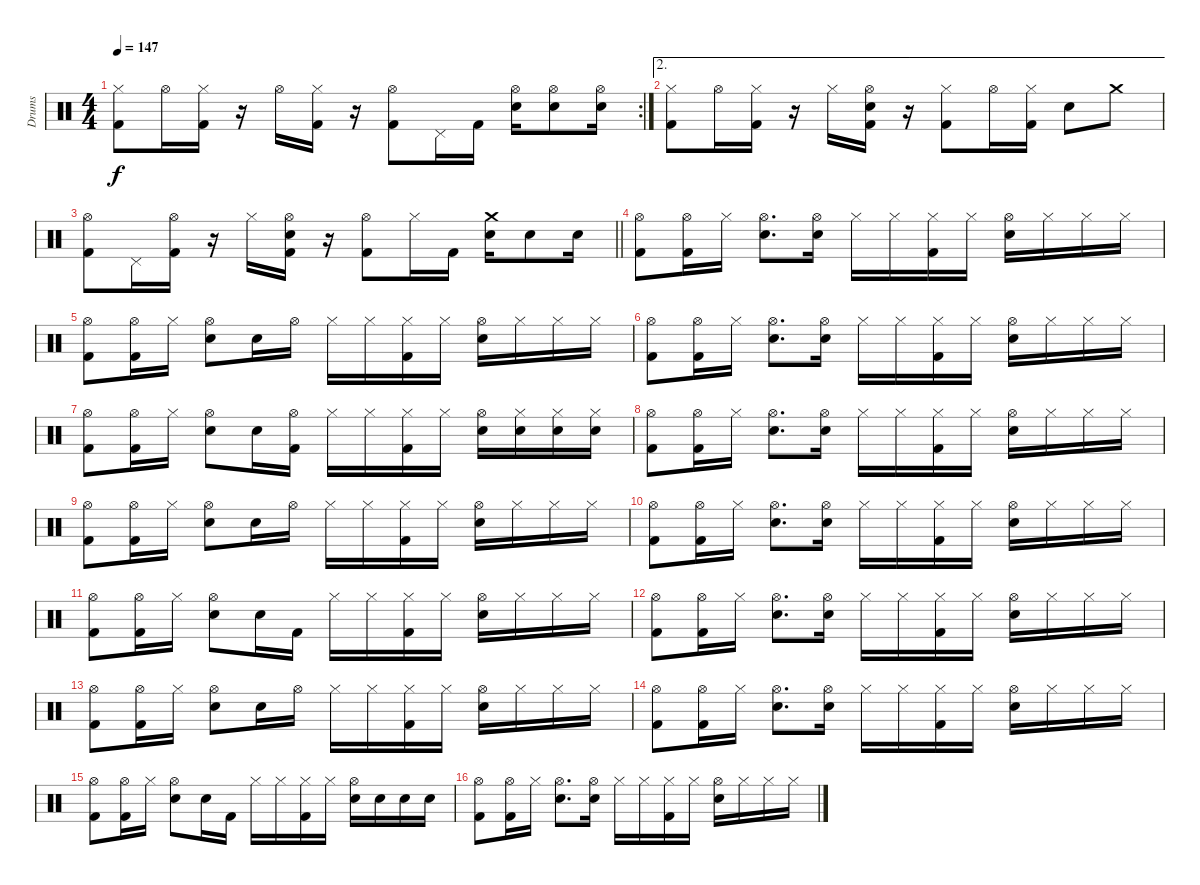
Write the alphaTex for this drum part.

\track ("Drums" "Drums") {instrument percussion}
\staff {score}
\articulation defaults
\rc 2
\ts (4 4)
\tempo 147
\clef neutral
\ks c
("Hi-Hat (closed)" "Kick (hit) 2").8{dy f} "Hi-Hat (open)".16 ("Hi-Hat (closed)" "Kick (hit) 2").16 r.16 "Hi-Hat (open)".16 ("Hi-Hat (closed)" "Kick (hit) 2").16 r.16 ("Hi-Hat (open)" "Kick (hit) 2").8 "Pedal Hi-Hat (hit)".16 "Kick (hit) 2".16 ("Hi-Hat (open)" "Electric Snare (hit)").16 ("Hi-Hat (open)" "Electric Snare (hit)").8 ("Hi-Hat (open)" "Electric Snare (hit)").16 |
\ae 2
("Hi-Hat (closed)" "Kick (hit) 2").8 "Hi-Hat (open)".16 ("Hi-Hat (closed)" "Kick (hit) 2").16 r.16 "Hi-Hat (closed)".16 ("Hi-Hat (open)" "Electric Snare (hit)" "Kick (hit) 2").16 r.16 ("Hi-Hat (closed)" "Kick (hit) 2").8 "Hi-Hat (open)".16 ("Hi-Hat (closed)" "Kick (hit) 2").16 "Electric Snare (hit)".8 "Crash medium (hit)".8 |
\barLineRight lightlight
("Hi-Hat (open)" "Kick (hit) 2").8 "Pedal Hi-Hat (hit)".16 ("Hi-Hat (open)" "Kick (hit) 2").16 r.16 "Hi-Hat (closed)".16 ("Hi-Hat (open)" "Electric Snare (hit)" "Kick (hit) 2").16 r.16 ("Hi-Hat (open)" "Kick (hit) 2").8 "Hi-Hat (closed)".16 "Kick (hit) 2".16 ("Crash medium (hit)" "Electric Snare (hit)").16 "Electric Snare (hit)".8 "Electric Snare (hit)".16 |
("Hi-Hat (open)" "Kick (hit) 2").8 ("Hi-Hat (open)" "Kick (hit) 2").16 "Hi-Hat (closed)".16 ("Hi-Hat (open)" "Electric Snare (hit)").8{d} ("Hi-Hat (open)" "Electric Snare (hit)").16 "Hi-Hat (closed)".16 "Hi-Hat (closed)".16 ("Hi-Hat (closed)" "Kick (hit) 2").16 "Hi-Hat (closed)".16 ("Hi-Hat (open)" "Electric Snare (hit)").16 "Hi-Hat (closed)".16 "Hi-Hat (closed)".16 "Hi-Hat (closed)".16 |
("Hi-Hat (open)" "Kick (hit) 2").8 ("Hi-Hat (open)" "Kick (hit) 2").16 "Hi-Hat (closed)".16 ("Hi-Hat (open)" "Electric Snare (hit)").8 "Electric Snare (hit)".16 "Hi-Hat (open)".16 "Hi-Hat (closed)".16 "Hi-Hat (closed)".16 ("Hi-Hat (closed)" "Kick (hit) 2").16 "Hi-Hat (closed)".16 ("Hi-Hat (open)" "Electric Snare (hit)").16 "Hi-Hat (closed)".16 "Hi-Hat (closed)".16 "Hi-Hat (closed)".16 |
("Hi-Hat (open)" "Kick (hit) 2").8 ("Hi-Hat (open)" "Kick (hit) 2").16 "Hi-Hat (closed)".16 ("Hi-Hat (open)" "Electric Snare (hit)").8{d} ("Hi-Hat (open)" "Electric Snare (hit)").16 "Hi-Hat (closed)".16 "Hi-Hat (closed)".16 ("Hi-Hat (closed)" "Kick (hit) 2").16 "Hi-Hat (closed)".16 ("Hi-Hat (open)" "Electric Snare (hit)").16 "Hi-Hat (closed)".16 "Hi-Hat (closed)".16 "Hi-Hat (closed)".16 |
("Hi-Hat (open)" "Kick (hit) 2").8 ("Hi-Hat (open)" "Kick (hit) 2").16 "Hi-Hat (closed)".16 ("Hi-Hat (open)" "Electric Snare (hit)").8 "Electric Snare (hit)".16 ("Hi-Hat (open)" "Kick (hit) 2").16 "Hi-Hat (closed)".16 "Hi-Hat (closed)".16 ("Hi-Hat (closed)" "Kick (hit) 2").16 "Hi-Hat (closed)".16 ("Hi-Hat (open)" "Electric Snare (hit)").16 ("Hi-Hat (closed)" "Electric Snare (hit)").16 ("Hi-Hat (closed)" "Electric Snare (hit)").16 ("Hi-Hat (closed)" "Electric Snare (hit)").16 |
("Hi-Hat (open)" "Kick (hit) 2").8 ("Hi-Hat (open)" "Kick (hit) 2").16 "Hi-Hat (closed)".16 ("Hi-Hat (open)" "Electric Snare (hit)").8{d} ("Hi-Hat (open)" "Electric Snare (hit)").16 "Hi-Hat (closed)".16 "Hi-Hat (closed)".16 ("Hi-Hat (closed)" "Kick (hit) 2").16 "Hi-Hat (closed)".16 ("Hi-Hat (open)" "Electric Snare (hit)").16 "Hi-Hat (closed)".16 "Hi-Hat (closed)".16 "Hi-Hat (closed)".16 |
("Hi-Hat (open)" "Kick (hit) 2").8 ("Hi-Hat (open)" "Kick (hit) 2").16 "Hi-Hat (closed)".16 ("Hi-Hat (open)" "Electric Snare (hit)").8 "Electric Snare (hit)".16 "Hi-Hat (open)".16 "Hi-Hat (closed)".16 "Hi-Hat (closed)".16 ("Hi-Hat (closed)" "Kick (hit) 2").16 "Hi-Hat (closed)".16 ("Hi-Hat (open)" "Electric Snare (hit)").16 "Hi-Hat (closed)".16 "Hi-Hat (closed)".16 "Hi-Hat (closed)".16 |
("Hi-Hat (open)" "Kick (hit) 2").8 ("Hi-Hat (open)" "Kick (hit) 2").16 "Hi-Hat (closed)".16 ("Hi-Hat (open)" "Electric Snare (hit)").8{d} ("Hi-Hat (open)" "Electric Snare (hit)").16 "Hi-Hat (closed)".16 "Hi-Hat (closed)".16 ("Hi-Hat (closed)" "Kick (hit) 2").16 "Hi-Hat (closed)".16 ("Hi-Hat (open)" "Electric Snare (hit)").16 "Hi-Hat (closed)".16 "Hi-Hat (closed)".16 "Hi-Hat (closed)".16 |
("Hi-Hat (open)" "Kick (hit) 2").8 ("Hi-Hat (open)" "Kick (hit) 2").16 "Hi-Hat (closed)".16 ("Hi-Hat (open)" "Electric Snare (hit)").8 "Electric Snare (hit)".16 "Kick (hit) 2".16 "Hi-Hat (closed)".16 "Hi-Hat (closed)".16 ("Hi-Hat (closed)" "Kick (hit) 2").16 "Hi-Hat (closed)".16 ("Hi-Hat (open)" "Electric Snare (hit)").16 "Hi-Hat (closed)".16 "Hi-Hat (closed)".16 "Hi-Hat (closed)".16 |
("Hi-Hat (open)" "Kick (hit) 2").8 ("Hi-Hat (open)" "Kick (hit) 2").16 "Hi-Hat (closed)".16 ("Hi-Hat (open)" "Electric Snare (hit)").8{d} ("Hi-Hat (open)" "Electric Snare (hit)").16 "Hi-Hat (closed)".16 "Hi-Hat (closed)".16 ("Hi-Hat (closed)" "Kick (hit) 2").16 "Hi-Hat (closed)".16 ("Hi-Hat (open)" "Electric Snare (hit)").16 "Hi-Hat (closed)".16 "Hi-Hat (closed)".16 "Hi-Hat (closed)".16 |
("Hi-Hat (open)" "Kick (hit) 2").8 ("Hi-Hat (open)" "Kick (hit) 2").16 "Hi-Hat (closed)".16 ("Hi-Hat (open)" "Electric Snare (hit)").8 "Electric Snare (hit)".16 "Hi-Hat (open)".16 "Hi-Hat (closed)".16 "Hi-Hat (closed)".16 ("Hi-Hat (closed)" "Kick (hit) 2").16 "Hi-Hat (closed)".16 ("Hi-Hat (open)" "Electric Snare (hit)").16 "Hi-Hat (closed)".16 "Hi-Hat (closed)".16 "Hi-Hat (closed)".16 |
("Hi-Hat (open)" "Kick (hit) 2").8 ("Hi-Hat (open)" "Kick (hit) 2").16 "Hi-Hat (closed)".16 ("Hi-Hat (open)" "Electric Snare (hit)").8{d} ("Hi-Hat (open)" "Electric Snare (hit)").16 "Hi-Hat (closed)".16 "Hi-Hat (closed)".16 ("Hi-Hat (closed)" "Kick (hit) 2").16 "Hi-Hat (closed)".16 ("Hi-Hat (open)" "Electric Snare (hit)").16 "Hi-Hat (closed)".16 "Hi-Hat (closed)".16 "Hi-Hat (closed)".16 |
("Hi-Hat (open)" "Kick (hit) 2").8 ("Hi-Hat (open)" "Kick (hit) 2").16 "Hi-Hat (closed)".16 ("Hi-Hat (open)" "Electric Snare (hit)").8 "Electric Snare (hit)".16 "Kick (hit) 2".16 "Hi-Hat (closed)".16 "Hi-Hat (closed)".16 ("Hi-Hat (closed)" "Kick (hit) 2").16 "Hi-Hat (closed)".16 ("Hi-Hat (open)" "Electric Snare (hit)").16 "Electric Snare (hit)".16 "Electric Snare (hit)".16 "Electric Snare (hit)".16 |
("Hi-Hat (open)" "Kick (hit) 2").8 ("Hi-Hat (open)" "Kick (hit) 2").16 "Hi-Hat (closed)".16 ("Hi-Hat (open)" "Electric Snare (hit)").8{d} ("Hi-Hat (open)" "Electric Snare (hit)").16 "Hi-Hat (closed)".16 "Hi-Hat (closed)".16 ("Hi-Hat (closed)" "Kick (hit) 2").16 "Hi-Hat (closed)".16 ("Hi-Hat (open)" "Electric Snare (hit)").16 "Hi-Hat (closed)".16 "Hi-Hat (closed)".16 "Hi-Hat (closed)".16
